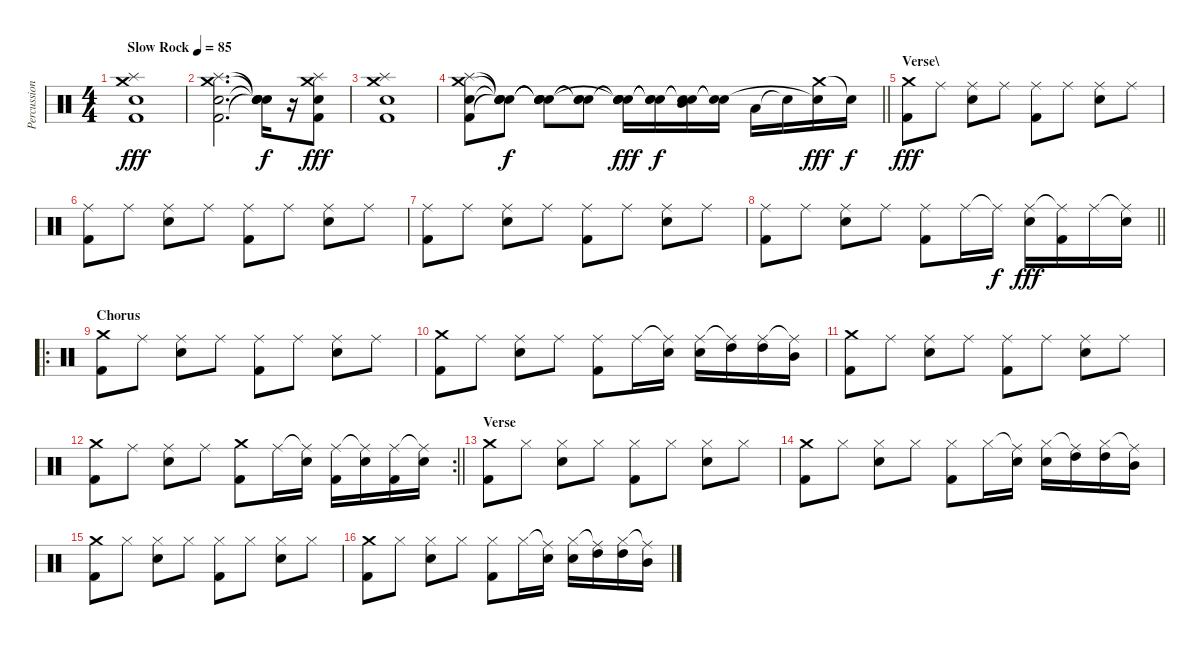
\track ("Percussion" "Percussion") {instrument percussion}
\staff {score}
\articulation defaults
\ts (4 4)
\tempo (85 "Slow Rock")
\clef neutral
\ks c
("Crash medium (hit)" "Kick (hit) 2" "Snare (hit) 2" "Splash (hit)").1{dy fff} |
("Crash medium (hit)" "Kick (hit) 2" "Snare (hit) 2" "Splash (hit)").2{d} ("Snare (hit)"{t} "Snare (hit)"{t} "Snare (hit)"{t} "Snare (hit)"{t}).16{dy f} r.16 ("Crash medium (hit)" "Kick (hit) 2" "Snare (hit) 2" "Splash (hit)").8{dy fff} |
("Crash medium (hit)" "Kick (hit) 2" "Snare (hit) 2" "Splash (hit)").1 |
\barLineRight lightlight
("Crash medium (hit)" "Kick (hit) 2" "Snare (hit) 2" "Splash (hit)").8 ("Snare (hit)"{t} "Snare (hit)"{t} "Snare (hit)"{t} "Snare (hit)"{t}).8{dy f} ("Snare (hit)"{t} "Snare (hit)"{t} "Snare (hit)"{t} "Snare (hit)"{t}).8 ("Snare (hit)"{t} "Snare (hit)"{t} "Snare (hit)"{t}).8 ("Snare (hit)"{t} "Snare (hit) 2" "Snare (hit)"{t} "Snare (hit)"{t}).16{dy fff} ("Snare (hit)"{t} "Snare (hit)"{t} "Snare (hit)"{t}).16{dy f} ("Snare (hit)"{t} "Snare (hit)"{t} "Mid Tom (hit)").16 ("Snare (hit)"{t} "Snare (hit)"{t}).16 "Low Tom (hit)".16 "Snare (hit)"{t}.16 ("Crash medium (hit)" "Snare (hit)"{t}).16{dy fff} "Snare (hit)"{t}.16{dy f} |
\section ("" "Verse\\")
("Crash medium (hit)" "Kick (hit) 2").8{dy fff} "Ride (middle)".8 ("Ride (middle)" "Snare (hit) 2").8 "Ride (middle)".8 ("Ride (middle)" "Kick (hit) 2").8 "Ride (middle)".8 ("Ride (middle)" "Snare (hit) 2").8 "Ride (middle)".8 |
("Ride (middle)" "Kick (hit) 2").8 "Ride (middle)".8 ("Ride (middle)" "Snare (hit) 2").8 "Ride (middle)".8 ("Ride (middle)" "Kick (hit) 2").8 "Ride (middle)".8 ("Ride (middle)" "Snare (hit) 2").8 "Ride (middle)".8 |
("Ride (middle)" "Kick (hit) 2").8 "Ride (middle)".8 ("Ride (middle)" "Snare (hit) 2").8 "Ride (middle)".8 ("Ride (middle)" "Kick (hit) 2").8 "Ride (middle)".8 ("Ride (middle)" "Snare (hit) 2").8 "Ride (middle)".8 |
\barLineRight lightlight
("Ride (middle)" "Kick (hit) 2").8 "Ride (middle)".8 ("Ride (middle)" "Snare (hit) 2").8 "Ride (middle)".8 ("Ride (middle)" "Kick (hit) 2").8 "Ride (middle)".16 "Ride (middle)"{t}.16{dy f} ("Ride (middle)" "Snare (hit) 2").16{dy fff} ("Ride (middle)"{t} "Kick (hit) 2").16 "Ride (middle)".16 ("Ride (middle)"{t} "Snare (hit) 2").16 |
\ro
\section ("" "Chorus")
("Crash medium (hit)" "Kick (hit) 2").8 "Ride (middle)".8 ("Ride (middle)" "Snare (hit) 2").8 "Ride (middle)".8 ("Ride (middle)" "Kick (hit) 2").8 "Ride (middle)".8 ("Ride (middle)" "Snare (hit) 2").8 "Ride (middle)".8 |
("Crash medium (hit)" "Kick (hit) 2").8 "Ride (middle)".8 ("Ride (middle)" "Snare (hit) 2").8 "Ride (middle)".8 ("Ride (middle)" "Kick (hit) 2").8 "Ride (middle)".16 ("Ride (middle)"{t} "Snare (hit) 2").16 ("Ride (middle)" "Snare (hit) 2").16 ("Ride (middle)"{t} "High Tom (hit)").16 ("Ride (middle)" "High Tom (hit)").16 ("Ride (middle)"{t} "Mid Tom (hit)").16 |
("Crash medium (hit)" "Kick (hit) 2").8 "Ride (middle)".8 ("Ride (middle)" "Snare (hit) 2").8 "Ride (middle)".8 ("Ride (middle)" "Kick (hit) 2").8 "Ride (middle)".8 ("Ride (middle)" "Snare (hit) 2").8 "Ride (middle)".8 |
\rc 2
\barLineRight lightlight
("Crash medium (hit)" "Kick (hit) 2").8 "Ride (middle)".8 ("Ride (middle)" "Snare (hit) 2").8 "Ride (middle)".8 ("Crash medium (hit)" "Kick (hit) 2").8 "Ride (middle)".16 ("Ride (middle)"{t} "Snare (hit) 2").16 ("Ride (middle)" "Kick (hit) 2").16 ("Ride (middle)"{t} "Snare (hit) 2").16 ("Ride (middle)" "Kick (hit) 2").16 ("Ride (middle)"{t} "Snare (hit) 2").16 |
\section ("" "Verse")
("Crash medium (hit)" "Kick (hit) 2").8 "Hi-Hat (closed)".8 ("Hi-Hat (closed)" "Snare (hit) 2").8 "Hi-Hat (closed)".8 ("Hi-Hat (closed)" "Kick (hit) 2").8 "Hi-Hat (closed)".8 ("Hi-Hat (closed)" "Snare (hit) 2").8 "Hi-Hat (closed)".8 |
("Crash medium (hit)" "Kick (hit) 2").8 "Hi-Hat (closed)".8 ("Hi-Hat (closed)" "Snare (hit) 2").8 "Hi-Hat (closed)".8 ("Hi-Hat (closed)" "Kick (hit) 2").8 "Hi-Hat (closed)".16 ("Ride (middle)"{t} "Snare (hit) 2").16 ("Hi-Hat (closed)" "Snare (hit) 2").16 ("Ride (middle)"{t} "High Tom (hit)").16 ("Hi-Hat (closed)" "High Tom (hit)").16 ("Ride (middle)"{t} "Mid Tom (hit)").16 |
("Crash medium (hit)" "Kick (hit) 2").8 "Hi-Hat (closed)".8 ("Hi-Hat (closed)" "Snare (hit) 2").8 "Hi-Hat (closed)".8 ("Hi-Hat (closed)" "Kick (hit) 2").8 "Hi-Hat (closed)".8 ("Hi-Hat (closed)" "Snare (hit) 2").8 "Hi-Hat (closed)".8 |
("Crash medium (hit)" "Kick (hit) 2").8 "Hi-Hat (closed)".8 ("Hi-Hat (closed)" "Snare (hit) 2").8 "Hi-Hat (closed)".8 ("Hi-Hat (closed)" "Kick (hit) 2").8 "Hi-Hat (closed)".16 ("Ride (middle)"{t} "Snare (hit) 2").16 ("Hi-Hat (closed)" "Snare (hit) 2").16 ("Ride (middle)"{t} "High Tom (hit)").16 ("Hi-Hat (closed)" "High Tom (hit)").16 ("Ride (middle)"{t} "Mid Tom (hit)").16
